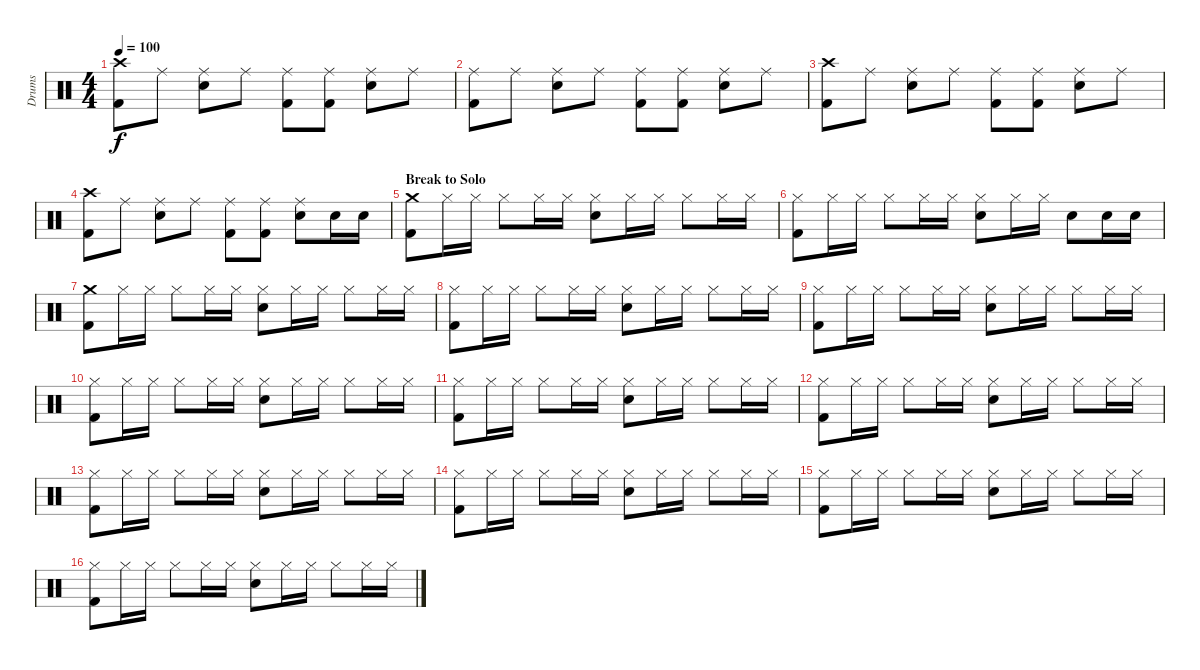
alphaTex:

\track ("Drums" "Drums") {instrument percussion}
\staff {score}
\articulation defaults
\ts (4 4)
\tempo 100
\clef neutral
\ks c
("Crash high (hit)" "Kick (hit) 2").8{dy f} "Ride (middle)".8 ("Ride (middle)" "Snare (hit) 2").8 "Ride (middle)".8 ("Ride (middle)" "Kick (hit) 2").8 ("Ride (middle)" "Kick (hit) 2").8 ("Ride (middle)" "Snare (hit) 2").8 "Ride (middle)".8 |
("Ride (middle)" "Kick (hit) 2").8 "Ride (middle)".8 ("Ride (middle)" "Snare (hit) 2").8 "Ride (middle)".8 ("Ride (middle)" "Kick (hit) 2").8 ("Ride (middle)" "Kick (hit) 2").8 ("Ride (middle)" "Snare (hit) 2").8 "Ride (middle)".8 |
("Crash high (hit)" "Kick (hit) 2").8 "Ride (middle)".8 ("Ride (middle)" "Snare (hit) 2").8 "Ride (middle)".8 ("Ride (middle)" "Kick (hit) 2").8 ("Ride (middle)" "Kick (hit) 2").8 ("Ride (middle)" "Snare (hit) 2").8 "Ride (middle)".8 |
("Crash high (hit)" "Kick (hit) 2").8 "Ride (middle)".8 ("Ride (middle)" "Snare (hit) 2").8 "Ride (middle)".8 ("Ride (middle)" "Kick (hit) 2").8 ("Ride (middle)" "Kick (hit) 2").8 ("Ride (middle)" "Snare (hit) 2").8 "Snare (hit) 2".16 "Snare (hit) 2".16 |
\section ("" "Break to Solo")
("Crash medium (hit)" "Kick (hit) 2").8 "Hi-Hat (closed)".16 "Hi-Hat (closed)".16 "Hi-Hat (closed)".8 "Hi-Hat (closed)".16 "Hi-Hat (closed)".16 ("Hi-Hat (closed)" "Snare (hit) 2").8 "Hi-Hat (closed)".16 "Hi-Hat (closed)".16 "Hi-Hat (closed)".8 "Hi-Hat (closed)".16 "Hi-Hat (closed)".16 |
("Hi-Hat (closed)" "Kick (hit) 2").8 "Hi-Hat (closed)".16 "Hi-Hat (closed)".16 "Hi-Hat (closed)".8 "Hi-Hat (closed)".16 "Hi-Hat (closed)".16 ("Hi-Hat (closed)" "Snare (hit) 2").8 "Hi-Hat (closed)".16 "Hi-Hat (closed)".16 "Snare (hit) 2".8 "Snare (hit) 2".16 "Snare (hit) 2".16 |
("Crash medium (hit)" "Kick (hit) 2").8 "Hi-Hat (closed)".16 "Hi-Hat (closed)".16 "Hi-Hat (closed)".8 "Hi-Hat (closed)".16 "Hi-Hat (closed)".16 ("Hi-Hat (closed)" "Snare (hit) 2").8 "Hi-Hat (closed)".16 "Hi-Hat (closed)".16 "Hi-Hat (closed)".8 "Hi-Hat (closed)".16 "Hi-Hat (closed)".16 |
("Hi-Hat (closed)" "Kick (hit) 2").8 "Hi-Hat (closed)".16 "Hi-Hat (closed)".16 "Hi-Hat (closed)".8 "Hi-Hat (closed)".16 "Hi-Hat (closed)".16 ("Hi-Hat (closed)" "Snare (hit) 2").8 "Hi-Hat (closed)".16 "Hi-Hat (closed)".16 "Hi-Hat (closed)".8 "Hi-Hat (closed)".16 "Hi-Hat (closed)".16 |
("Hi-Hat (closed)" "Kick (hit) 2").8 "Hi-Hat (closed)".16 "Hi-Hat (closed)".16 "Hi-Hat (closed)".8 "Hi-Hat (closed)".16 "Hi-Hat (closed)".16 ("Hi-Hat (closed)" "Snare (hit) 2").8 "Hi-Hat (closed)".16 "Hi-Hat (closed)".16 "Hi-Hat (closed)".8 "Hi-Hat (closed)".16 "Hi-Hat (closed)".16 |
("Hi-Hat (closed)" "Kick (hit) 2").8 "Hi-Hat (closed)".16 "Hi-Hat (closed)".16 "Hi-Hat (closed)".8 "Hi-Hat (closed)".16 "Hi-Hat (closed)".16 ("Hi-Hat (closed)" "Snare (hit) 2").8 "Hi-Hat (closed)".16 "Hi-Hat (closed)".16 "Hi-Hat (closed)".8 "Hi-Hat (closed)".16 "Hi-Hat (closed)".16 |
("Hi-Hat (closed)" "Kick (hit) 2").8 "Hi-Hat (closed)".16 "Hi-Hat (closed)".16 "Hi-Hat (closed)".8 "Hi-Hat (closed)".16 "Hi-Hat (closed)".16 ("Hi-Hat (closed)" "Snare (hit) 2").8 "Hi-Hat (closed)".16 "Hi-Hat (closed)".16 "Hi-Hat (closed)".8 "Hi-Hat (closed)".16 "Hi-Hat (closed)".16 |
("Hi-Hat (closed)" "Kick (hit) 2").8 "Hi-Hat (closed)".16 "Hi-Hat (closed)".16 "Hi-Hat (closed)".8 "Hi-Hat (closed)".16 "Hi-Hat (closed)".16 ("Hi-Hat (closed)" "Snare (hit) 2").8 "Hi-Hat (closed)".16 "Hi-Hat (closed)".16 "Hi-Hat (closed)".8 "Hi-Hat (closed)".16 "Hi-Hat (closed)".16 |
("Hi-Hat (closed)" "Kick (hit) 2").8 "Hi-Hat (closed)".16 "Hi-Hat (closed)".16 "Hi-Hat (closed)".8 "Hi-Hat (closed)".16 "Hi-Hat (closed)".16 ("Hi-Hat (closed)" "Snare (hit) 2").8 "Hi-Hat (closed)".16 "Hi-Hat (closed)".16 "Hi-Hat (closed)".8 "Hi-Hat (closed)".16 "Hi-Hat (closed)".16 |
("Hi-Hat (closed)" "Kick (hit) 2").8 "Hi-Hat (closed)".16 "Hi-Hat (closed)".16 "Hi-Hat (closed)".8 "Hi-Hat (closed)".16 "Hi-Hat (closed)".16 ("Hi-Hat (closed)" "Snare (hit) 2").8 "Hi-Hat (closed)".16 "Hi-Hat (closed)".16 "Hi-Hat (closed)".8 "Hi-Hat (closed)".16 "Hi-Hat (closed)".16 |
("Hi-Hat (closed)" "Kick (hit) 2").8 "Hi-Hat (closed)".16 "Hi-Hat (closed)".16 "Hi-Hat (closed)".8 "Hi-Hat (closed)".16 "Hi-Hat (closed)".16 ("Hi-Hat (closed)" "Snare (hit) 2").8 "Hi-Hat (closed)".16 "Hi-Hat (closed)".16 "Hi-Hat (closed)".8 "Hi-Hat (closed)".16 "Hi-Hat (closed)".16 |
("Hi-Hat (closed)" "Kick (hit) 2").8 "Hi-Hat (closed)".16 "Hi-Hat (closed)".16 "Hi-Hat (closed)".8 "Hi-Hat (closed)".16 "Hi-Hat (closed)".16 ("Hi-Hat (closed)" "Snare (hit) 2").8 "Hi-Hat (closed)".16 "Hi-Hat (closed)".16 "Hi-Hat (closed)".8 "Hi-Hat (closed)".16 "Hi-Hat (closed)".16
